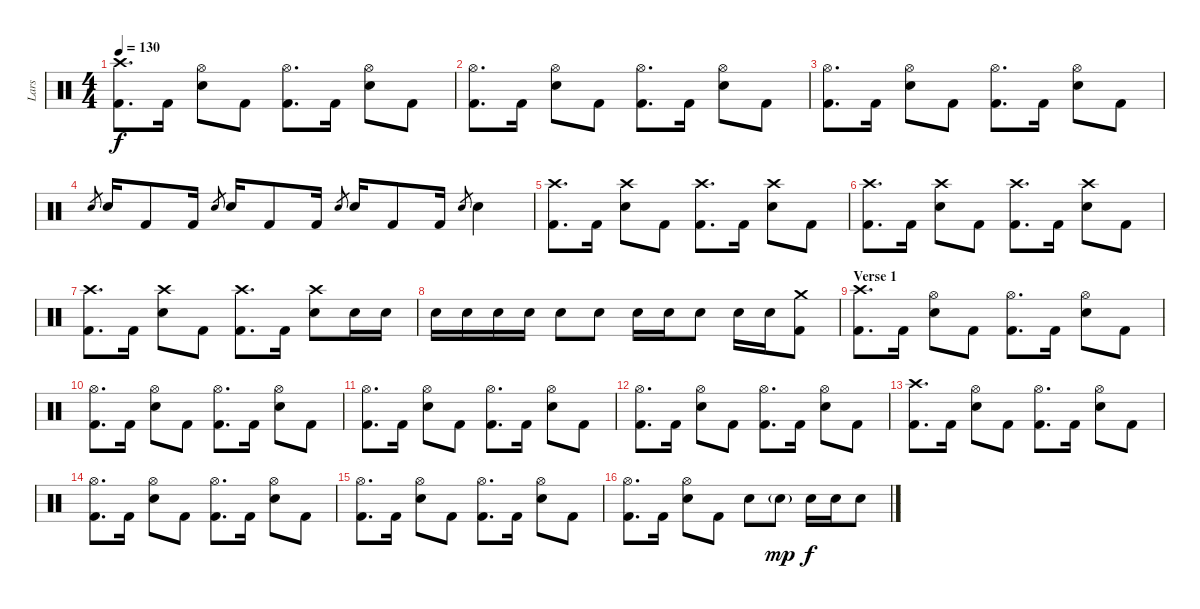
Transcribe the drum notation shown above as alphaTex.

\track ("Lars" "Lars") {instrument percussion}
\staff {score}
\articulation defaults
\ts (4 4)
\tempo 130
\clef neutral
\ks c
("Kick (hit) 2" "Crash high (hit)").8{d dy f} "Kick (hit) 2".16 ("Electric Snare (hit)" "Hi-Hat (open)").8 "Kick (hit) 2".8 ("Kick (hit) 2" "Hi-Hat (open)").8{d} "Kick (hit) 2".16 ("Electric Snare (hit)" "Hi-Hat (open)").8 "Kick (hit) 2".8 |
("Kick (hit) 2" "Hi-Hat (open)").8{d} "Kick (hit) 2".16 ("Electric Snare (hit)" "Hi-Hat (open)").8 "Kick (hit) 2".8 ("Kick (hit) 2" "Hi-Hat (open)").8{d} "Kick (hit) 2".16 ("Electric Snare (hit)" "Hi-Hat (open)").8 "Kick (hit) 2".8 |
("Kick (hit) 2" "Hi-Hat (open)").8{d} "Kick (hit) 2".16 ("Electric Snare (hit)" "Hi-Hat (open)").8 "Kick (hit) 2".8 ("Kick (hit) 2" "Hi-Hat (open)").8{d} "Kick (hit) 2".16 ("Electric Snare (hit)" "Hi-Hat (open)").8 "Kick (hit) 2".8 |
"Electric Snare (hit)".8{gr} "Electric Snare (hit)".16 "Kick (hit) 2".8 "Kick (hit) 2".16 "Electric Snare (hit)".8{gr} "Electric Snare (hit)".16 "Kick (hit) 2".8 "Kick (hit) 2".16 "Electric Snare (hit)".8{gr} "Electric Snare (hit)".16 "Kick (hit) 2".8 "Kick (hit) 2".16 "Electric Snare (hit)".8{gr} "Electric Snare (hit)".4 |
\section ("" "")
("Kick (hit) 2" "Crash high (hit)").8{d} "Kick (hit) 2".16 ("Electric Snare (hit)" "Crash high (hit)").8 "Kick (hit) 2".8 ("Kick (hit) 2" "Crash high (hit)").8{d} "Kick (hit) 2".16 ("Electric Snare (hit)" "Crash high (hit)").8 "Kick (hit) 2".8 |
("Kick (hit) 2" "Crash high (hit)").8{d} "Kick (hit) 2".16 ("Electric Snare (hit)" "Crash high (hit)").8 "Kick (hit) 2".8 ("Kick (hit) 2" "Crash high (hit)").8{d} "Kick (hit) 2".16 ("Electric Snare (hit)" "Crash high (hit)").8 "Kick (hit) 2".8 |
("Kick (hit) 2" "Crash high (hit)").8{d} "Kick (hit) 2".16 ("Electric Snare (hit)" "Crash high (hit)").8 "Kick (hit) 2".8 ("Kick (hit) 2" "Crash high (hit)").8{d} "Kick (hit) 2".16 ("Electric Snare (hit)" "Crash high (hit)").8 "Electric Snare (hit)".16 "Electric Snare (hit)".16 |
"Electric Snare (hit)".16 "Electric Snare (hit)".16 "Electric Snare (hit)".16 "Electric Snare (hit)".16 "Electric Snare (hit)".8 "Electric Snare (hit)".8 "Electric Snare (hit)".16 "Electric Snare (hit)".16 "Electric Snare (hit)".8 "Electric Snare (hit)".16 "Electric Snare (hit)".16 ("Kick (hit) 2" "Crash medium (hit)").8 |
\section ("" "Verse 1")
("Kick (hit) 2" "Crash high (hit)").8{d} "Kick (hit) 2".16 ("Electric Snare (hit)" "Hi-Hat (open)").8 "Kick (hit) 2".8 ("Kick (hit) 2" "Hi-Hat (open)").8{d} "Kick (hit) 2".16 ("Electric Snare (hit)" "Hi-Hat (open)").8 "Kick (hit) 2".8 |
("Kick (hit) 2" "Hi-Hat (open)").8{d} "Kick (hit) 2".16 ("Electric Snare (hit)" "Hi-Hat (open)").8 "Kick (hit) 2".8 ("Kick (hit) 2" "Hi-Hat (open)").8{d} "Kick (hit) 2".16 ("Electric Snare (hit)" "Hi-Hat (open)").8 "Kick (hit) 2".8 |
("Kick (hit) 2" "Hi-Hat (open)").8{d} "Kick (hit) 2".16 ("Electric Snare (hit)" "Hi-Hat (open)").8 "Kick (hit) 2".8 ("Kick (hit) 2" "Hi-Hat (open)").8{d} "Kick (hit) 2".16 ("Electric Snare (hit)" "Hi-Hat (open)").8 "Kick (hit) 2".8 |
("Kick (hit) 2" "Hi-Hat (open)").8{d} "Kick (hit) 2".16 ("Electric Snare (hit)" "Hi-Hat (open)").8 "Kick (hit) 2".8 ("Kick (hit) 2" "Hi-Hat (open)").8{d} "Kick (hit) 2".16 ("Electric Snare (hit)" "Hi-Hat (open)").8 "Kick (hit) 2".8 |
("Kick (hit) 2" "Crash high (hit)").8{d} "Kick (hit) 2".16 ("Electric Snare (hit)" "Hi-Hat (open)").8 "Kick (hit) 2".8 ("Kick (hit) 2" "Hi-Hat (open)").8{d} "Kick (hit) 2".16 ("Electric Snare (hit)" "Hi-Hat (open)").8 "Kick (hit) 2".8 |
("Kick (hit) 2" "Hi-Hat (open)").8{d} "Kick (hit) 2".16 ("Electric Snare (hit)" "Hi-Hat (open)").8 "Kick (hit) 2".8 ("Kick (hit) 2" "Hi-Hat (open)").8{d} "Kick (hit) 2".16 ("Electric Snare (hit)" "Hi-Hat (open)").8 "Kick (hit) 2".8 |
("Kick (hit) 2" "Hi-Hat (open)").8{d} "Kick (hit) 2".16 ("Electric Snare (hit)" "Hi-Hat (open)").8 "Kick (hit) 2".8 ("Kick (hit) 2" "Hi-Hat (open)").8{d} "Kick (hit) 2".16 ("Electric Snare (hit)" "Hi-Hat (open)").8 "Kick (hit) 2".8 |
("Kick (hit) 2" "Hi-Hat (open)").8{d} "Kick (hit) 2".16 ("Electric Snare (hit)" "Hi-Hat (open)").8 "Kick (hit) 2".8 "Electric Snare (hit)".8 "Electric Snare (hit)"{g}.8{dy mp} "Electric Snare (hit)".16{dy f} "Electric Snare (hit)".16 "Electric Snare (hit)".8
